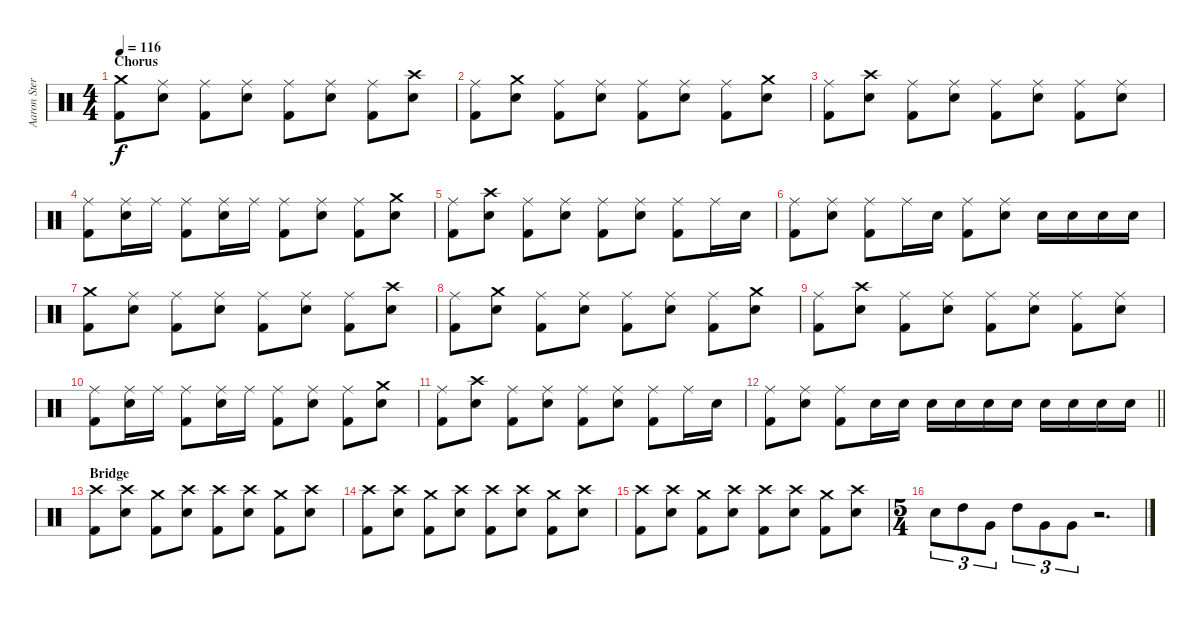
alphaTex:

\track ("Aaron Stern" "Aaron Ster") {instrument percussion}
\staff {score}
\articulation defaults
\ts (4 4)
\section ("" "Chorus")
\tempo 116
\clef neutral
\ks c
("Crash medium (hit)" "Kick (hit) 2").8{dy f} ("Ride (middle)" "Snare (hit) 2").8 ("Ride (middle)" "Kick (hit) 2").8 ("Ride (middle)" "Snare (hit) 2").8 ("Ride (middle)" "Kick (hit) 2").8 ("Ride (middle)" "Snare (hit) 2").8 ("Ride (middle)" "Kick (hit) 2").8 ("Crash high (hit)" "Snare (hit) 2").8 |
("Ride (middle)" "Kick (hit) 2").8 ("Crash medium (hit)" "Snare (hit) 2").8 ("Ride (middle)" "Kick (hit) 2").8 ("Ride (middle)" "Snare (hit) 2").8 ("Ride (middle)" "Kick (hit) 2").8 ("Ride (middle)" "Snare (hit) 2").8 ("Ride (middle)" "Kick (hit) 2").8 ("Crash medium (hit)" "Snare (hit) 2").8 |
("Ride (middle)" "Kick (hit) 2").8 ("Crash high (hit)" "Snare (hit) 2").8 ("Ride (middle)" "Kick (hit) 2").8 ("Ride (middle)" "Snare (hit) 2").8 ("Ride (middle)" "Kick (hit) 2").8 ("Ride (middle)" "Snare (hit) 2").8 ("Ride (middle)" "Kick (hit) 2").8 ("Ride (middle)" "Snare (hit) 2").8 |
("Ride (middle)" "Kick (hit) 2").8 ("Ride (middle)" "Snare (hit) 2").16 "Ride (middle)".16 ("Ride (middle)" "Kick (hit) 2").8 ("Ride (middle)" "Snare (hit) 2").16 "Ride (middle)".16 ("Ride (middle)" "Kick (hit) 2").8 ("Ride (middle)" "Snare (hit) 2").8 ("Ride (middle)" "Kick (hit) 2").8 ("Crash medium (hit)" "Snare (hit) 2").8 |
("Ride (middle)" "Kick (hit) 2").8 ("Crash high (hit)" "Snare (hit) 2").8 ("Ride (middle)" "Kick (hit) 2").8 ("Ride (middle)" "Snare (hit) 2").8 ("Ride (middle)" "Kick (hit) 2").8 ("Ride (middle)" "Snare (hit) 2").8 ("Ride (middle)" "Kick (hit) 2").8 "Ride (middle)".16 "Snare (hit) 2".16 |
("Ride (middle)" "Kick (hit) 2").8 ("Ride (middle)" "Snare (hit) 2").8 ("Ride (middle)" "Kick (hit) 2").8 "Ride (middle)".16 "Snare (hit) 2".16 ("Ride (middle)" "Kick (hit) 2").8 ("Ride (middle)" "Snare (hit) 2").8 "Snare (hit) 2".16 "Snare (hit) 2".16 "Snare (hit) 2".16 "Snare (hit) 2".16 |
("Crash medium (hit)" "Kick (hit) 2").8 ("Ride (middle)" "Snare (hit) 2").8 ("Ride (middle)" "Kick (hit) 2").8 ("Ride (middle)" "Snare (hit) 2").8 ("Ride (middle)" "Kick (hit) 2").8 ("Ride (middle)" "Snare (hit) 2").8 ("Ride (middle)" "Kick (hit) 2").8 ("Crash high (hit)" "Snare (hit) 2").8 |
("Ride (middle)" "Kick (hit) 2").8 ("Crash medium (hit)" "Snare (hit) 2").8 ("Ride (middle)" "Kick (hit) 2").8 ("Ride (middle)" "Snare (hit) 2").8 ("Ride (middle)" "Kick (hit) 2").8 ("Ride (middle)" "Snare (hit) 2").8 ("Ride (middle)" "Kick (hit) 2").8 ("Crash medium (hit)" "Snare (hit) 2").8 |
("Ride (middle)" "Kick (hit) 2").8 ("Crash high (hit)" "Snare (hit) 2").8 ("Ride (middle)" "Kick (hit) 2").8 ("Ride (middle)" "Snare (hit) 2").8 ("Ride (middle)" "Kick (hit) 2").8 ("Ride (middle)" "Snare (hit) 2").8 ("Ride (middle)" "Kick (hit) 2").8 ("Ride (middle)" "Snare (hit) 2").8 |
("Ride (middle)" "Kick (hit) 2").8 ("Ride (middle)" "Snare (hit) 2").16 "Ride (middle)".16 ("Ride (middle)" "Kick (hit) 2").8 ("Ride (middle)" "Snare (hit) 2").16 "Ride (middle)".16 ("Ride (middle)" "Kick (hit) 2").8 ("Ride (middle)" "Snare (hit) 2").8 ("Ride (middle)" "Kick (hit) 2").8 ("Crash medium (hit)" "Snare (hit) 2").8 |
("Ride (middle)" "Kick (hit) 2").8 ("Crash high (hit)" "Snare (hit) 2").8 ("Ride (middle)" "Kick (hit) 2").8 ("Ride (middle)" "Snare (hit) 2").8 ("Ride (middle)" "Kick (hit) 2").8 ("Ride (middle)" "Snare (hit) 2").8 ("Ride (middle)" "Kick (hit) 2").8 "Ride (middle)".16 "Snare (hit) 2".16 |
\barLineRight lightlight
("Ride (middle)" "Kick (hit) 2").8 ("Ride (middle)" "Snare (hit) 2").8 ("Ride (middle)" "Kick (hit) 2").8 "Snare (hit) 2".16 "Snare (hit) 2".16 "Snare (hit) 2".16 "Snare (hit) 2".16 "Snare (hit) 2".16 "Snare (hit) 2".16 "Snare (hit) 2".16 "Snare (hit) 2".16 "Snare (hit) 2".16 "Snare (hit) 2".16 |
\section ("" "Bridge")
("Crash high (hit)" "Kick (hit) 2").8 ("Crash high (hit)" "Snare (hit) 2").8 ("Crash medium (hit)" "Kick (hit) 2").8 ("Crash high (hit)" "Snare (hit) 2").8 ("Crash high (hit)" "Kick (hit) 2").8 ("Crash high (hit)" "Snare (hit) 2").8 ("Crash medium (hit)" "Kick (hit) 2").8 ("Crash high (hit)" "Snare (hit) 2").8 |
("Crash high (hit)" "Kick (hit) 2").8 ("Crash high (hit)" "Snare (hit) 2").8 ("Crash medium (hit)" "Kick (hit) 2").8 ("Crash high (hit)" "Snare (hit) 2").8 ("Crash high (hit)" "Kick (hit) 2").8 ("Crash high (hit)" "Snare (hit) 2").8 ("Crash medium (hit)" "Kick (hit) 2").8 ("Crash high (hit)" "Snare (hit) 2").8 |
("Crash high (hit)" "Kick (hit) 2").8 ("Crash high (hit)" "Snare (hit) 2").8 ("Crash medium (hit)" "Kick (hit) 2").8 ("Crash high (hit)" "Snare (hit) 2").8 ("Crash high (hit)" "Kick (hit) 2").8 ("Crash high (hit)" "Snare (hit) 2").8 ("Crash medium (hit)" "Kick (hit) 2").8 ("Crash high (hit)" "Snare (hit) 2").8 |
\ts (5 4)
"Snare (hit) 2".8{tu (3 2)} "High Tom (hit)".8{tu (3 2)} "Very Low Tom (hit)".8{tu (3 2)} "High Tom (hit)".8{tu (3 2)} "Very Low Tom (hit)".8{tu (3 2)} "Very Low Tom (hit)".8{tu (3 2)} r.2{d}
